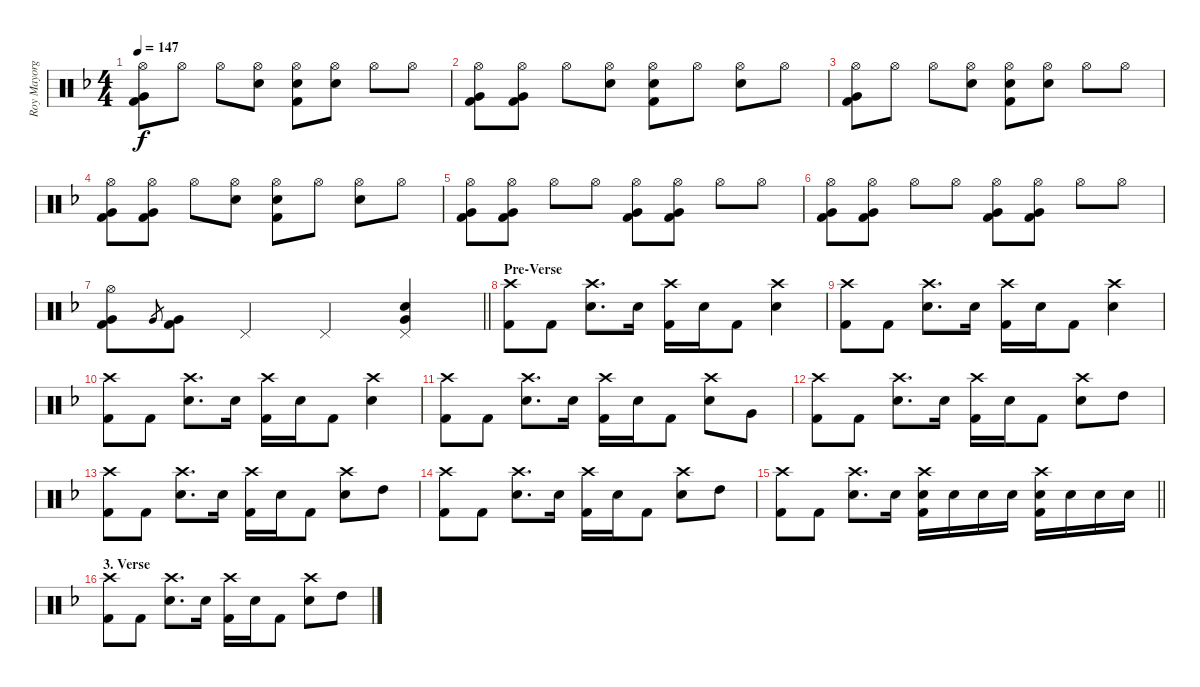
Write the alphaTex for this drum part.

\track ("Roy Mayorga (Drums)" "Roy Mayorg") {instrument percussion}
\staff {score}
\articulation defaults
\ts (4 4)
\tempo 147
\clef neutral
\ks f
("Hi-Hat (open)" "Very Low Tom (hit)" "Kick (hit) 2").8{dy f} "Hi-Hat (open)".8 "Hi-Hat (open)".8 ("Hi-Hat (open)" "Snare (hit) 2").8 ("Hi-Hat (open)" "Snare (hit) 2" "Kick (hit) 2").8 ("Hi-Hat (open)" "Snare (hit) 2").8 "Hi-Hat (open)".8 "Hi-Hat (open)".8 |
("Hi-Hat (open)" "Very Low Tom (hit)" "Kick (hit) 2").8 ("Hi-Hat (open)" "Very Low Tom (hit)" "Kick (hit) 2").8 "Hi-Hat (open)".8 ("Hi-Hat (open)" "Snare (hit) 2").8 ("Hi-Hat (open)" "Snare (hit) 2" "Kick (hit) 2").8 "Hi-Hat (open)".8 ("Hi-Hat (open)" "Snare (hit) 2").8 "Hi-Hat (open)".8 |
("Hi-Hat (open)" "Very Low Tom (hit)" "Kick (hit) 2").8 "Hi-Hat (open)".8 "Hi-Hat (open)".8 ("Hi-Hat (open)" "Snare (hit) 2").8 ("Hi-Hat (open)" "Snare (hit) 2" "Kick (hit) 2").8 ("Hi-Hat (open)" "Snare (hit) 2").8 "Hi-Hat (open)".8 "Hi-Hat (open)".8 |
("Hi-Hat (open)" "Very Low Tom (hit)" "Kick (hit) 2").8 ("Hi-Hat (open)" "Very Low Tom (hit)" "Kick (hit) 2").8 "Hi-Hat (open)".8 ("Hi-Hat (open)" "Snare (hit) 2").8 ("Hi-Hat (open)" "Snare (hit) 2" "Kick (hit) 2").8 "Hi-Hat (open)".8 ("Hi-Hat (open)" "Snare (hit) 2").8 "Hi-Hat (open)".8 |
("Hi-Hat (open)" "Very Low Tom (hit)" "Kick (hit) 2").8 ("Hi-Hat (open)" "Very Low Tom (hit)" "Kick (hit) 2").8 "Hi-Hat (open)".8 "Hi-Hat (open)".8 ("Hi-Hat (open)" "Very Low Tom (hit)" "Kick (hit) 2").8 ("Hi-Hat (open)" "Very Low Tom (hit)" "Kick (hit) 2").8 "Hi-Hat (open)".8 "Hi-Hat (open)".8 |
("Hi-Hat (open)" "Very Low Tom (hit)" "Kick (hit) 2").8 ("Hi-Hat (open)" "Very Low Tom (hit)" "Kick (hit) 2").8 "Hi-Hat (open)".8 "Hi-Hat (open)".8 ("Hi-Hat (open)" "Very Low Tom (hit)" "Kick (hit) 2").8 ("Hi-Hat (open)" "Very Low Tom (hit)" "Kick (hit) 2").8 "Hi-Hat (open)".8 "Hi-Hat (open)".8 |
\barLineRight lightlight
("Hi-Hat (open)" "Very Low Tom (hit)" "Kick (hit) 2").8 "Very Low Tom (hit)".8{gr} ("Very Low Tom (hit)" "Kick (hit) 2").8 "Pedal Hi-Hat (hit)".4 "Pedal Hi-Hat (hit)".4 ("Snare (hit) 2" "Very Low Tom (hit)" "Pedal Hi-Hat (hit)").4 |
\section ("" "Pre-Verse")
("Crash high (hit)" "Kick (hit) 2").8 "Kick (hit) 2".8 ("Crash high (hit)" "Snare (hit) 2").8{d} "Snare (hit) 2".16 ("Crash high (hit)" "Kick (hit) 2").16 "Snare (hit) 2".16 "Kick (hit) 2".8 ("Crash high (hit)" "Snare (hit) 2").4 |
("Crash high (hit)" "Kick (hit) 2").8 "Kick (hit) 2".8 ("Crash high (hit)" "Snare (hit) 2").8{d} "Snare (hit) 2".16 ("Crash high (hit)" "Kick (hit) 2").16 "Snare (hit) 2".16 "Kick (hit) 2".8 ("Crash high (hit)" "Snare (hit) 2").4 |
("Crash high (hit)" "Kick (hit) 2").8 "Kick (hit) 2".8 ("Crash high (hit)" "Snare (hit) 2").8{d} "Snare (hit) 2".16 ("Crash high (hit)" "Kick (hit) 2").16 "Snare (hit) 2".16 "Kick (hit) 2".8 ("Crash high (hit)" "Snare (hit) 2").4 |
("Crash high (hit)" "Kick (hit) 2").8 "Kick (hit) 2".8 ("Crash high (hit)" "Snare (hit) 2").8{d} "Snare (hit) 2".16 ("Crash high (hit)" "Kick (hit) 2").16 "Snare (hit) 2".16 "Kick (hit) 2".8 ("Crash high (hit)" "Snare (hit) 2").8 "Very Low Tom (hit)".8 |
("Crash high (hit)" "Kick (hit) 2").8 "Kick (hit) 2".8 ("Crash high (hit)" "Snare (hit) 2").8{d} "Snare (hit) 2".16 ("Crash high (hit)" "Kick (hit) 2").16 "Snare (hit) 2".16 "Kick (hit) 2".8 ("Crash high (hit)" "Snare (hit) 2").8 "High Tom (hit)".8 |
("Crash high (hit)" "Kick (hit) 2").8 "Kick (hit) 2".8 ("Crash high (hit)" "Snare (hit) 2").8{d} "Snare (hit) 2".16 ("Crash high (hit)" "Kick (hit) 2").16 "Snare (hit) 2".16 "Kick (hit) 2".8 ("Crash high (hit)" "Snare (hit) 2").8 "High Tom (hit)".8 |
("Crash high (hit)" "Kick (hit) 2").8 "Kick (hit) 2".8 ("Crash high (hit)" "Snare (hit) 2").8{d} "Snare (hit) 2".16 ("Crash high (hit)" "Kick (hit) 2").16 "Snare (hit) 2".16 "Kick (hit) 2".8 ("Crash high (hit)" "Snare (hit) 2").8 "High Tom (hit)".8 |
\barLineRight lightlight
("Crash high (hit)" "Kick (hit) 2").8 "Kick (hit) 2".8 ("Crash high (hit)" "Snare (hit) 2").8{d} "Snare (hit) 2".16 ("Crash high (hit)" "Snare (hit) 2" "Kick (hit) 2").16 "Snare (hit) 2".16 "Snare (hit) 2".16 "Snare (hit) 2".16 ("Crash high (hit)" "Snare (hit) 2" "Kick (hit) 2").16 "Snare (hit) 2".16 "Snare (hit) 2".16 "Snare (hit) 2".16 |
\section ("" "3. Verse")
("Crash high (hit)" "Kick (hit) 2").8 "Kick (hit) 2".8 ("Crash high (hit)" "Snare (hit) 2").8{d} "Snare (hit) 2".16 ("Crash high (hit)" "Kick (hit) 2").16 "Snare (hit) 2".16 "Kick (hit) 2".8 ("Crash high (hit)" "Snare (hit) 2").8 "High Tom (hit)".8
